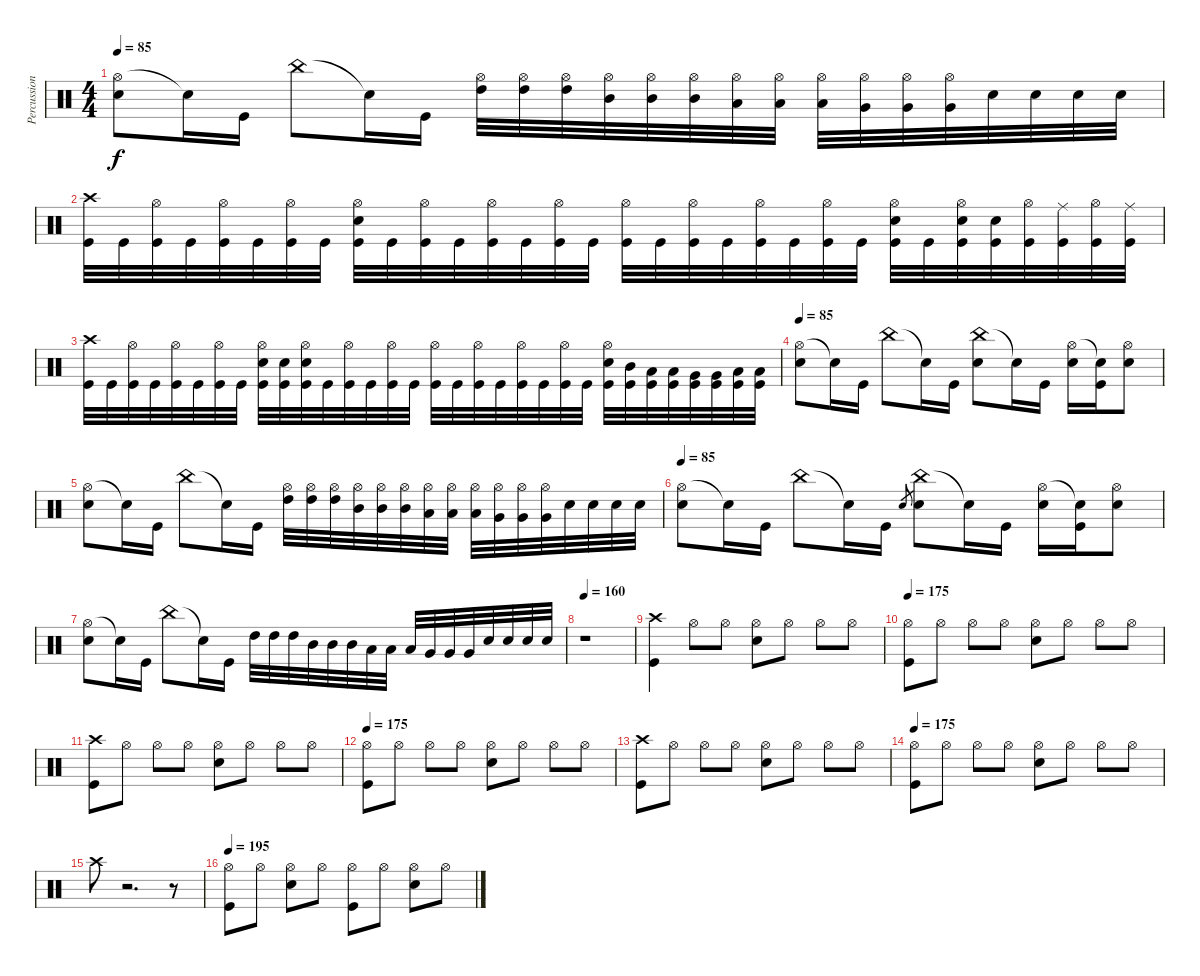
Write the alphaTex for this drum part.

\track ("Percussion" "Percussion") {instrument percussion}
\staff {score}
\articulation defaults
\ts (4 4)
\tempo 85
\clef neutral
\ks c
("Hi-Hat (open)" "Electric Snare (hit)").8{dy f} "Snare (hit)"{t}.16 "Kick (hit)".16 "China (hit)".8 "Snare (hit)"{t}.16 "Kick (hit)".16 ("Hi-Hat (open)" "High Tom (hit)").32 ("Hi-Hat (open)" "High Tom (hit)").32 ("Hi-Hat (open)" "High Tom (hit)").32 ("Hi-Hat (open)" "Mid Tom (hit)").32 ("Hi-Hat (open)" "Mid Tom (hit)").32 ("Hi-Hat (open)" "Mid Tom (hit)").32 ("Hi-Hat (open)" "Low Tom (hit)").32 ("Hi-Hat (open)" "Low Tom (hit)").32 ("Hi-Hat (open)" "Low Tom (hit)").32 ("Hi-Hat (open)" "Very Low Tom (hit)").32 ("Hi-Hat (open)" "Very Low Tom (hit)").32 ("Hi-Hat (open)" "Very Low Tom (hit)").32 "Electric Snare (hit)".32 "Electric Snare (hit)".32 "Electric Snare (hit)".32 "Electric Snare (hit)".32 |
("Crash high (hit)" "Kick (hit)").32 "Kick (hit)".32 ("Hi-Hat (open)" "Kick (hit)").32 "Kick (hit)".32 ("Hi-Hat (open)" "Kick (hit)").32 "Kick (hit)".32 ("Hi-Hat (open)" "Kick (hit)").32 "Kick (hit)".32 ("Hi-Hat (open)" "Electric Snare (hit)" "Kick (hit)").32 "Kick (hit)".32 ("Hi-Hat (open)" "Kick (hit)").32 "Kick (hit)".32 ("Hi-Hat (open)" "Kick (hit)").32 "Kick (hit)".32 ("Hi-Hat (open)" "Kick (hit)").32 "Kick (hit)".32 ("Hi-Hat (open)" "Kick (hit)").32 "Kick (hit)".32 ("Hi-Hat (open)" "Kick (hit)").32 "Kick (hit)".32 ("Hi-Hat (open)" "Kick (hit)").32 "Kick (hit)".32 ("Hi-Hat (open)" "Kick (hit)").32 "Kick (hit)".32 ("Hi-Hat (open)" "Electric Snare (hit)" "Kick (hit)").32 "Kick (hit)".32 ("Hi-Hat (open)" "Electric Snare (hit)" "Kick (hit)").32 ("Electric Snare (hit)" "Kick (hit)").32 ("Hi-Hat (open)" "Kick (hit)").32 ("Ride (middle)" "Kick (hit)").32 ("Hi-Hat (open)" "Kick (hit)").32 ("Ride (middle)" "Kick (hit)").32 |
("Crash high (hit)" "Kick (hit)").32 "Kick (hit)".32 ("Hi-Hat (open)" "Kick (hit)").32 "Kick (hit)".32 ("Hi-Hat (open)" "Kick (hit)").32 "Kick (hit)".32 ("Hi-Hat (open)" "Kick (hit)").32 "Kick (hit)".32 ("Hi-Hat (open)" "Electric Snare (hit)" "Kick (hit)").32 ("Electric Snare (hit)" "Kick (hit)").32 ("Hi-Hat (open)" "Electric Snare (hit)" "Kick (hit)").32 "Kick (hit)".32 ("Hi-Hat (open)" "Kick (hit)").32 "Kick (hit)".32 ("Hi-Hat (open)" "Kick (hit)").32 "Kick (hit)".32 ("Hi-Hat (open)" "Kick (hit)").32 "Kick (hit)".32 ("Hi-Hat (open)" "Kick (hit)").32 "Kick (hit)".32 ("Hi-Hat (open)" "Kick (hit)").32 "Kick (hit)".32 ("Hi-Hat (open)" "Kick (hit)").32 "Kick (hit)".32 ("Hi-Hat (open)" "Electric Snare (hit)" "Kick (hit)").32 ("Mid Tom (hit)" "Kick (hit)").32 ("Low Tom (hit)" "Kick (hit)").32 ("Low Tom (hit)" "Kick (hit)").32 ("Very Low Tom (hit)" "Kick (hit)").32 ("Very Low Tom (hit)" "Kick (hit)").32 ("Low Floor Tom (hit)" "Kick (hit)").32 ("Low Floor Tom (hit)" "Kick (hit)").32 |
\tempo 85
("Hi-Hat (open)" "Electric Snare (hit)").8 "Snare (hit)"{t}.16 "Kick (hit)".16 "China (hit)".8 "Snare (hit)"{t}.16 "Kick (hit)".16 ("China (hit)" "Electric Snare (hit)").8 "Snare (hit)"{t}.16 "Kick (hit)".16 ("Hi-Hat (open)" "Electric Snare (hit)").16 ("Snare (hit)"{t} "Kick (hit)").16 ("Hi-Hat (open)" "Electric Snare (hit)").8 |
("Hi-Hat (open)" "Electric Snare (hit)").8 "Snare (hit)"{t}.16 "Kick (hit)".16 "China (hit)".8 "Snare (hit)"{t}.16 "Kick (hit)".16 ("Hi-Hat (open)" "High Tom (hit)").32 ("Hi-Hat (open)" "High Tom (hit)").32 ("Hi-Hat (open)" "High Tom (hit)").32 ("Hi-Hat (open)" "Mid Tom (hit)").32 ("Hi-Hat (open)" "Mid Tom (hit)").32 ("Hi-Hat (open)" "Mid Tom (hit)").32 ("Hi-Hat (open)" "Low Tom (hit)").32 ("Hi-Hat (open)" "Low Tom (hit)").32 ("Hi-Hat (open)" "Low Tom (hit)").32 ("Hi-Hat (open)" "Very Low Tom (hit)").32 ("Hi-Hat (open)" "Very Low Tom (hit)").32 ("Hi-Hat (open)" "Very Low Tom (hit)").32 "Electric Snare (hit)".32 "Electric Snare (hit)".32 "Electric Snare (hit)".32 "Electric Snare (hit)".32 |
\tempo 85
("Hi-Hat (open)" "Electric Snare (hit)").8 "Snare (hit)"{t}.16 "Kick (hit)".16 "China (hit)".8 "Snare (hit)"{t}.16 "Kick (hit)".16 "Electric Snare (hit)".8{gr} ("China (hit)" "Electric Snare (hit)").8 "Snare (hit)"{t}.16 "Kick (hit)".16 ("Hi-Hat (open)" "Electric Snare (hit)").16 ("Snare (hit)"{t} "Kick (hit)").16 ("Hi-Hat (open)" "Electric Snare (hit)").8 |
("Hi-Hat (open)" "Electric Snare (hit)").8 "Snare (hit)"{t}.16 "Kick (hit)".16 "China (hit)".8 "Snare (hit)"{t}.16 "Kick (hit)".16 "High Tom (hit)".32 "High Tom (hit)".32 "High Tom (hit)".32 "Mid Tom (hit)".32 "Mid Tom (hit)".32 "Mid Tom (hit)".32 "Low Tom (hit)".32 "Low Tom (hit)".32 "Low Tom (hit)".32 "Very Low Tom (hit)".32 "Very Low Tom (hit)".32 "Very Low Tom (hit)".32 "Electric Snare (hit)".32 "Electric Snare (hit)".32 "Electric Snare (hit)".32 "Electric Snare (hit)".32 |
\tempo 175
\tempo 160
r.1 |
("Crash high (hit)" "Kick (hit)").4 "Hi-Hat (open)".8 "Hi-Hat (open)".8 ("Hi-Hat (open)" "Electric Snare (hit)").8 "Hi-Hat (open)".8 "Hi-Hat (open)".8 "Hi-Hat (open)".8 |
\tempo 175
("Hi-Hat (open)" "Kick (hit)").8 "Hi-Hat (open)".8 "Hi-Hat (open)".8 "Hi-Hat (open)".8 ("Hi-Hat (open)" "Electric Snare (hit)").8 "Hi-Hat (open)".8 "Hi-Hat (open)".8 "Hi-Hat (open)".8 |
("Crash high (hit)" "Kick (hit)").8 "Hi-Hat (open)".8 "Hi-Hat (open)".8 "Hi-Hat (open)".8 ("Hi-Hat (open)" "Electric Snare (hit)").8 "Hi-Hat (open)".8 "Hi-Hat (open)".8 "Hi-Hat (open)".8 |
\tempo 175
("Hi-Hat (open)" "Kick (hit)").8 "Hi-Hat (open)".8 "Hi-Hat (open)".8 "Hi-Hat (open)".8 ("Hi-Hat (open)" "Electric Snare (hit)").8 "Hi-Hat (open)".8 "Hi-Hat (open)".8 "Hi-Hat (open)".8 |
("Crash high (hit)" "Kick (hit)").8 "Hi-Hat (open)".8 "Hi-Hat (open)".8 "Hi-Hat (open)".8 ("Hi-Hat (open)" "Electric Snare (hit)").8 "Hi-Hat (open)".8 "Hi-Hat (open)".8 "Hi-Hat (open)".8 |
\tempo 175
("Hi-Hat (open)" "Kick (hit)").8 "Hi-Hat (open)".8 "Hi-Hat (open)".8 "Hi-Hat (open)".8 ("Hi-Hat (open)" "Electric Snare (hit)").8 "Hi-Hat (open)".8 "Hi-Hat (open)".8 "Hi-Hat (open)".8 |
"Crash high (hit)".8 r.2{d} r.8 |
\tempo 195
("Hi-Hat (open)" "Kick (hit)").8 "Hi-Hat (open)".8 ("Hi-Hat (open)" "Electric Snare (hit)").8 "Hi-Hat (open)".8 ("Hi-Hat (open)" "Kick (hit)").8 "Hi-Hat (open)".8 ("Hi-Hat (open)" "Electric Snare (hit)").8 "Hi-Hat (open)".8
